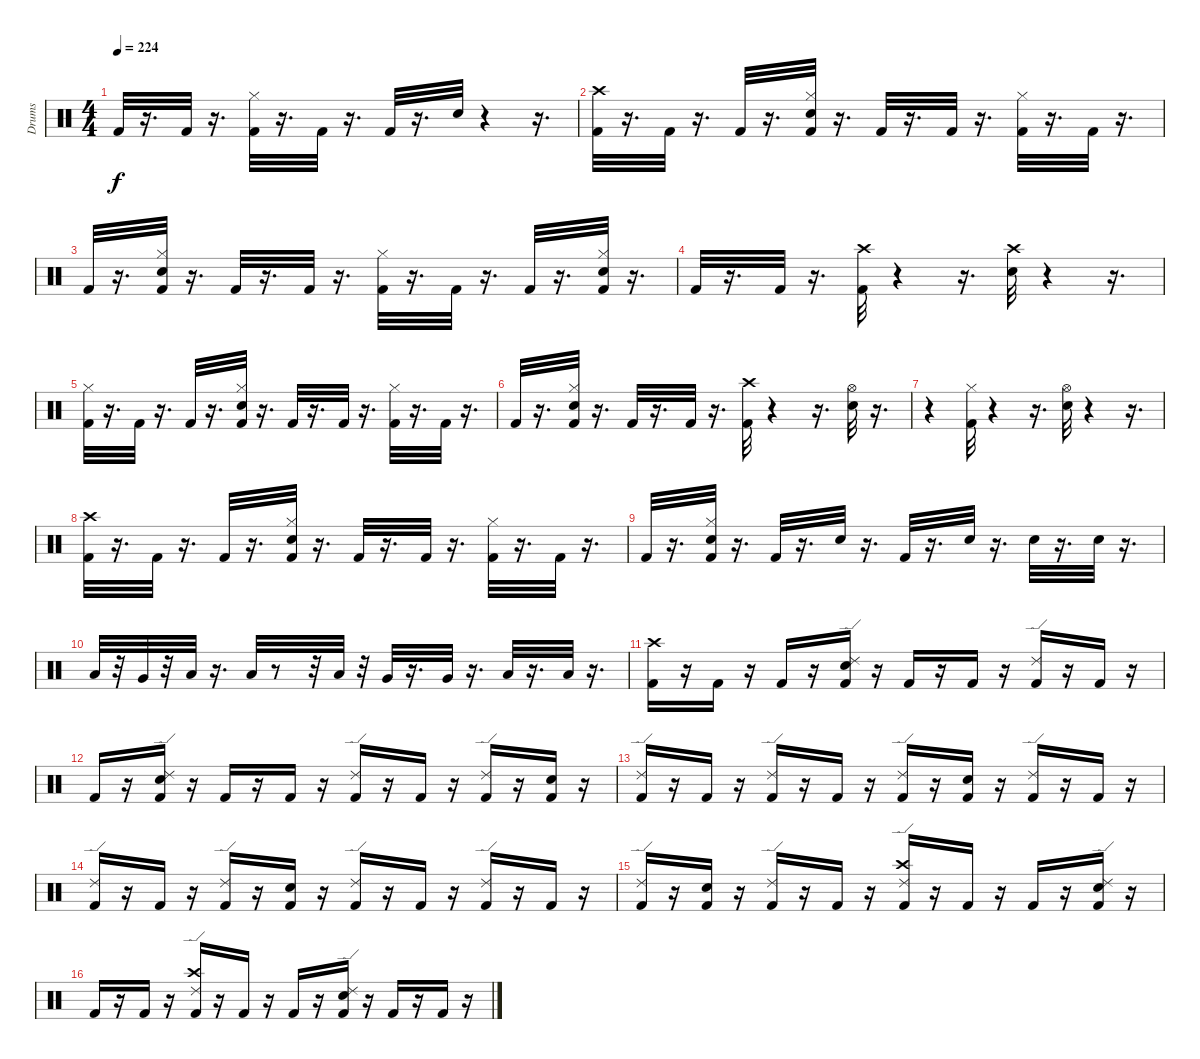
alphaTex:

\track ("Drums" "Drums") {instrument percussion}
\staff {score}
\articulation defaults
\ts (4 4)
\tempo 224
\clef neutral
\ks c "Kick (hit) 2".32{dy f}
r.16{d} "Kick (hit) 2".32 r.16{d} ("Hi-Hat (closed)" "Kick (hit) 2").32 r.16{d} "Kick (hit) 2".32 r.16{d} "Kick (hit) 2".32 r.16{d} "Snare (hit) 2".32 r.4 r.16{d} |
("Crash high (hit)" "Kick (hit) 2").32 r.16{d} "Kick (hit) 2".32 r.16{d} "Kick (hit) 2".32 r.16{d} ("Kick (hit) 2" "Snare (hit) 2" "Hi-Hat (closed)").32 r.16{d} "Kick (hit) 2".32 r.16{d} "Kick (hit) 2".32 r.16{d} ("Kick (hit) 2" "Hi-Hat (closed)").32 r.16{d} "Kick (hit) 2".32 r.16{d} |
"Kick (hit) 2".32 r.16{d} ("Kick (hit) 2" "Snare (hit) 2" "Hi-Hat (closed)").32 r.16{d} "Kick (hit) 2".32 r.16{d} "Kick (hit) 2".32 r.16{d} ("Hi-Hat (closed)" "Kick (hit) 2").32 r.16{d} "Kick (hit) 2".32 r.16{d} "Kick (hit) 2".32 r.16{d} ("Kick (hit) 2" "Snare (hit) 2" "Hi-Hat (closed)").32 r.16{d} |
"Kick (hit) 2".32 r.16{d} "Kick (hit) 2".32 r.16{d} ("Kick (hit) 2" "Crash high (hit)").32 r.4 r.16{d} ("Crash high (hit)" "Snare (hit) 2").32 r.4 r.16{d} |
("Kick (hit) 2" "Hi-Hat (closed)").32 r.16{d} "Kick (hit) 2".32 r.16{d} "Kick (hit) 2".32 r.16{d} ("Snare (hit) 2" "Kick (hit) 2" "Hi-Hat (closed)").32 r.16{d} "Kick (hit) 2".32 r.16{d} "Kick (hit) 2".32 r.16{d} ("Kick (hit) 2" "Hi-Hat (closed)").32 r.16{d} "Kick (hit) 2".32 r.16{d} |
"Kick (hit) 2".32 r.16{d} ("Snare (hit) 2" "Kick (hit) 2" "Hi-Hat (closed)").32 r.16{d} "Kick (hit) 2".32 r.16{d} "Kick (hit) 2".32 r.16{d} ("Crash high (hit)" "Kick (hit) 2").32 r.4 r.16{d} ("Snare (hit) 2" "Hi-Hat (open)").32 r.16{d} |
r.4 ("Kick (hit) 2" "Hi-Hat (closed)").32 r.4 r.16{d} ("Hi-Hat (open)" "Snare (hit) 2").32 r.4 r.16{d} |
("Kick (hit) 2" "Crash high (hit)").32 r.16{d} "Kick (hit) 2".32 r.16{d} "Kick (hit) 2".32 r.16{d} ("Snare (hit) 2" "Kick (hit) 2" "Hi-Hat (closed)").32 r.16{d} "Kick (hit) 2".32 r.16{d} "Kick (hit) 2".32 r.16{d} ("Kick (hit) 2" "Hi-Hat (closed)").32 r.16{d} "Kick (hit) 2".32 r.16{d} |
"Kick (hit) 2".32 r.16{d} ("Snare (hit) 2" "Kick (hit) 2" "Hi-Hat (closed)").32 r.16{d} "Kick (hit) 2".32 r.16{d} "Snare (hit) 2".32 r.16{d} "Kick (hit) 2".32 r.16{d} "Snare (hit) 2".32 r.16{d} "Snare (hit) 2".32 r.16{d} "Snare (hit) 2".32 r.16{d} |
"Low Tom (hit)".32 r.32 "Very Low Tom (hit)".32 r.32 "Low Floor Tom (hit)".32 r.16{d} "Low Tom (hit)".32 r.8 r.32 "Low Tom (hit)".32 r.32 "Very Low Tom (hit)".32 r.16{d} "Very Low Tom (hit)".32 r.16{d} "Low Floor Tom (hit)".32 r.16{d} "Low Floor Tom (hit)".32 r.16{d} |
("Crash high (hit)" "Kick (hit) 2").16 r.16 "Kick (hit) 2".16 r.16 "Kick (hit) 2".16 r.16 ("Snare (hit) 2" "Ride (edge) 2" "Kick (hit) 2").16 r.16 "Kick (hit) 2".16 r.16 "Kick (hit) 2".16 r.16 ("Ride (edge) 2" "Kick (hit) 2").16 r.16 "Kick (hit) 2".16 r.16 |
"Kick (hit) 2".16 r.16 ("Ride (edge) 2" "Kick (hit) 2" "Snare (hit) 2").16 r.16 "Kick (hit) 2".16 r.16 "Kick (hit) 2".16 r.16 ("Ride (edge) 2" "Kick (hit) 2").16 r.16 "Kick (hit) 2".16 r.16 ("Ride (edge) 2" "Kick (hit) 2").16 r.16 ("Snare (hit) 2" "Kick (hit) 2").16 r.16 |
("Ride (edge) 2" "Kick (hit) 2").16 r.16 "Kick (hit) 2".16 r.16 ("Ride (edge) 2" "Kick (hit) 2").16 r.16 "Kick (hit) 2".16 r.16 ("Ride (edge) 2" "Kick (hit) 2").16 r.16 ("Kick (hit) 2" "Snare (hit) 2").16 r.16 ("Ride (edge) 2" "Kick (hit) 2").16 r.16 "Kick (hit) 2".16 r.16 |
("Ride (edge) 2" "Kick (hit) 2").16 r.16 "Kick (hit) 2".16 r.16 ("Ride (edge) 2" "Kick (hit) 2").16 r.16 ("Snare (hit) 2" "Kick (hit) 2").16 r.16 ("Ride (edge) 2" "Kick (hit) 2").16 r.16 "Kick (hit) 2".16 r.16 ("Ride (edge) 2" "Kick (hit) 2").16 r.16 "Kick (hit) 2".16 r.16 |
("Ride (edge) 2" "Kick (hit) 2").16 r.16 ("Kick (hit) 2" "Snare (hit) 2").16 r.16 ("Ride (edge) 2" "Kick (hit) 2").16 r.16 "Kick (hit) 2".16 r.16 ("Ride (edge) 2" "Crash high (hit)" "Kick (hit) 2").16 r.16 "Kick (hit) 2".16 r.16 "Kick (hit) 2".16 r.16 ("Ride (edge) 2" "Snare (hit) 2" "Kick (hit) 2").16 r.16 |
"Kick (hit) 2".16 r.16 "Kick (hit) 2".16 r.16 ("Ride (edge) 2" "Crash high (hit)" "Kick (hit) 2").16 r.16 "Kick (hit) 2".16 r.16 "Kick (hit) 2".16 r.16 ("Ride (edge) 2" "Snare (hit) 2" "Kick (hit) 2").16 r.16 "Kick (hit) 2".16 r.16 "Kick (hit) 2".16 r.16
